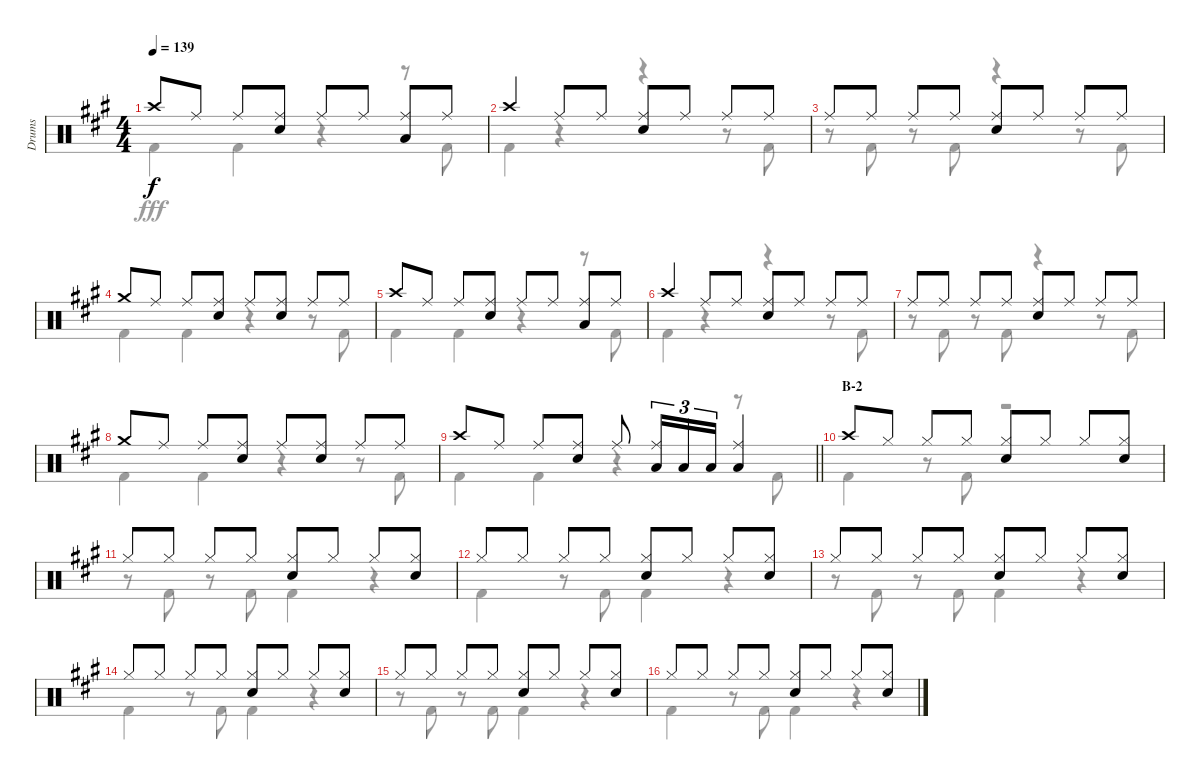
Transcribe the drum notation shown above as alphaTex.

\track ("Drums" "Drums") {instrument percussion}
\staff {score}
\articulation defaults
\voice
\ts (4 4)
\tempo 139
\clef neutral
\ks a "Crash high (hit)".8{dy f} "Ride (middle)".8 "Ride (middle)".8
("Ride (middle)" "Snare (hit) 2").8 "Ride (middle)".8 "Ride (middle)".8 ("Ride (middle)" "Low Tom (hit)").8 "Ride (middle)".8 |
"Crash high (hit)".4 "Ride (middle)".8 "Ride (middle)".8 ("Ride (middle)" "Snare (hit) 2").8 "Ride (middle)".8 "Ride (middle)".8 "Ride (middle)".8 |
"Ride (middle)".8 "Ride (middle)".8 "Ride (middle)".8 "Ride (middle)".8 ("Ride (middle)" "Snare (hit) 2").8 "Ride (middle)".8 "Ride (middle)".8 "Ride (middle)".8 |
"Crash medium (hit)".8 "Ride (middle)".8 "Ride (middle)".8 ("Ride (middle)" "Snare (hit) 2").8 "Ride (middle)".8 ("Ride (middle)" "Snare (hit) 2").8 "Ride (middle)".8 "Ride (middle)".8 |
"Crash high (hit)".8 "Ride (middle)".8 "Ride (middle)".8 ("Ride (middle)" "Snare (hit) 2").8 "Ride (middle)".8 "Ride (middle)".8 ("Ride (middle)" "Low Tom (hit)").8 "Ride (middle)".8 |
"Crash high (hit)".4 "Ride (middle)".8 "Ride (middle)".8 ("Ride (middle)" "Snare (hit) 2").8 "Ride (middle)".8 "Ride (middle)".8 "Ride (middle)".8 |
"Ride (middle)".8 "Ride (middle)".8 "Ride (middle)".8 "Ride (middle)".8 ("Ride (middle)" "Snare (hit) 2").8 "Ride (middle)".8 "Ride (middle)".8 "Ride (middle)".8 |
"Crash medium (hit)".8 "Ride (middle)".8 "Ride (middle)".8 ("Ride (middle)" "Snare (hit) 2").8 "Ride (middle)".8 ("Ride (middle)" "Snare (hit) 2").8 "Ride (middle)".8 "Ride (middle)".8 |
\barLineRight lightlight "Crash high (hit)".8 "Ride (middle)".8 "Ride (middle)".8
("Ride (middle)" "Snare (hit) 2").8 "Ride (middle)".8 ("Ride (middle)" "Low Tom (hit)").16{tu (3 2)} "Low Tom (hit)".16{tu (3 2)} "Low Tom (hit)".16{tu (3 2)} ("Ride (middle)" "Low Tom (hit)").4 |
\section ("" "B-2")
"Crash high (hit)".8 "Hi-Hat (closed)".8 "Hi-Hat (closed)".8 "Hi-Hat (closed)".8 ("Hi-Hat (closed)" "Snare (hit) 2").8 "Hi-Hat (closed)".8 "Hi-Hat (closed)".8 ("Hi-Hat (closed)" "Snare (hit) 2").8 |
"Hi-Hat (closed)".8 "Hi-Hat (closed)".8 "Hi-Hat (closed)".8 "Hi-Hat (closed)".8 ("Hi-Hat (closed)" "Snare (hit) 2").8 "Hi-Hat (closed)".8 "Hi-Hat (closed)".8 ("Hi-Hat (closed)" "Snare (hit) 2").8 |
"Hi-Hat (closed)".8 "Hi-Hat (closed)".8 "Hi-Hat (closed)".8 "Hi-Hat (closed)".8 ("Hi-Hat (closed)" "Snare (hit) 2").8 "Hi-Hat (closed)".8 "Hi-Hat (closed)".8 ("Hi-Hat (closed)" "Snare (hit) 2").8 |
"Hi-Hat (closed)".8 "Hi-Hat (closed)".8 "Hi-Hat (closed)".8 "Hi-Hat (closed)".8 ("Hi-Hat (closed)" "Snare (hit) 2").8 "Hi-Hat (closed)".8 "Hi-Hat (closed)".8 ("Hi-Hat (closed)" "Snare (hit) 2").8 |
"Hi-Hat (closed)".8 "Hi-Hat (closed)".8 "Hi-Hat (closed)".8 "Hi-Hat (closed)".8 ("Hi-Hat (closed)" "Snare (hit) 2").8 "Hi-Hat (closed)".8 "Hi-Hat (closed)".8 ("Hi-Hat (closed)" "Snare (hit) 2").8 |
"Hi-Hat (closed)".8 "Hi-Hat (closed)".8 "Hi-Hat (closed)".8 "Hi-Hat (closed)".8 ("Hi-Hat (closed)" "Snare (hit) 2").8 "Hi-Hat (closed)".8 "Hi-Hat (closed)".8 ("Hi-Hat (closed)" "Snare (hit) 2").8 |
"Hi-Hat (closed)".8 "Hi-Hat (closed)".8 "Hi-Hat (closed)".8 "Hi-Hat (closed)".8 ("Hi-Hat (closed)" "Snare (hit) 2").8 "Hi-Hat (closed)".8 "Hi-Hat (closed)".8 ("Hi-Hat (closed)" "Snare (hit) 2").8
\voice
\clef neutral
\ottava regular
\simile none
\ks a "Kick (hit) 2".4{dy fff} "Kick (hit) 2".4
r.4 r.8 "Kick (hit) 2".8 |
"Kick (hit) 2".4 r.4 r.4 r.8 "Kick (hit) 2".8 |
r.8 "Kick (hit) 2".8 r.8 "Kick (hit) 2".8 r.4 r.8 "Kick (hit) 2".8 |
"Kick (hit) 2".4 "Kick (hit) 2".4 r.4 r.8 "Kick (hit) 2".8 |
"Kick (hit) 2".4 "Kick (hit) 2".4 r.4 r.8 "Kick (hit) 2".8 |
"Kick (hit) 2".4 r.4 r.4 r.8 "Kick (hit) 2".8 |
r.8 "Kick (hit) 2".8 r.8 "Kick (hit) 2".8 r.4 r.8 "Kick (hit) 2".8 |
"Kick (hit) 2".4 "Kick (hit) 2".4 r.4 r.8 "Kick (hit) 2".8 |
\barLineRight lightlight "Kick (hit) 2".4 "Kick (hit) 2".4
r.4 r.8 "Kick (hit) 2".8 |
"Kick (hit) 2".4 r.8 "Kick (hit) 2".8 r.2 |
r.8 "Kick (hit) 2".8 r.8 "Kick (hit) 2".8 "Kick (hit) 2".4 r.4 |
"Kick (hit) 2".4 r.8 "Kick (hit) 2".8 "Kick (hit) 2".4 r.4 |
r.8 "Kick (hit) 2".8 r.8 "Kick (hit) 2".8 "Kick (hit) 2".4 r.4 |
"Kick (hit) 2".4 r.8 "Kick (hit) 2".8 "Kick (hit) 2".4 r.4 |
r.8 "Kick (hit) 2".8 r.8 "Kick (hit) 2".8 "Kick (hit) 2".4 r.4 |
"Kick (hit) 2".4 r.8 "Kick (hit) 2".8 "Kick (hit) 2".4 r.4
